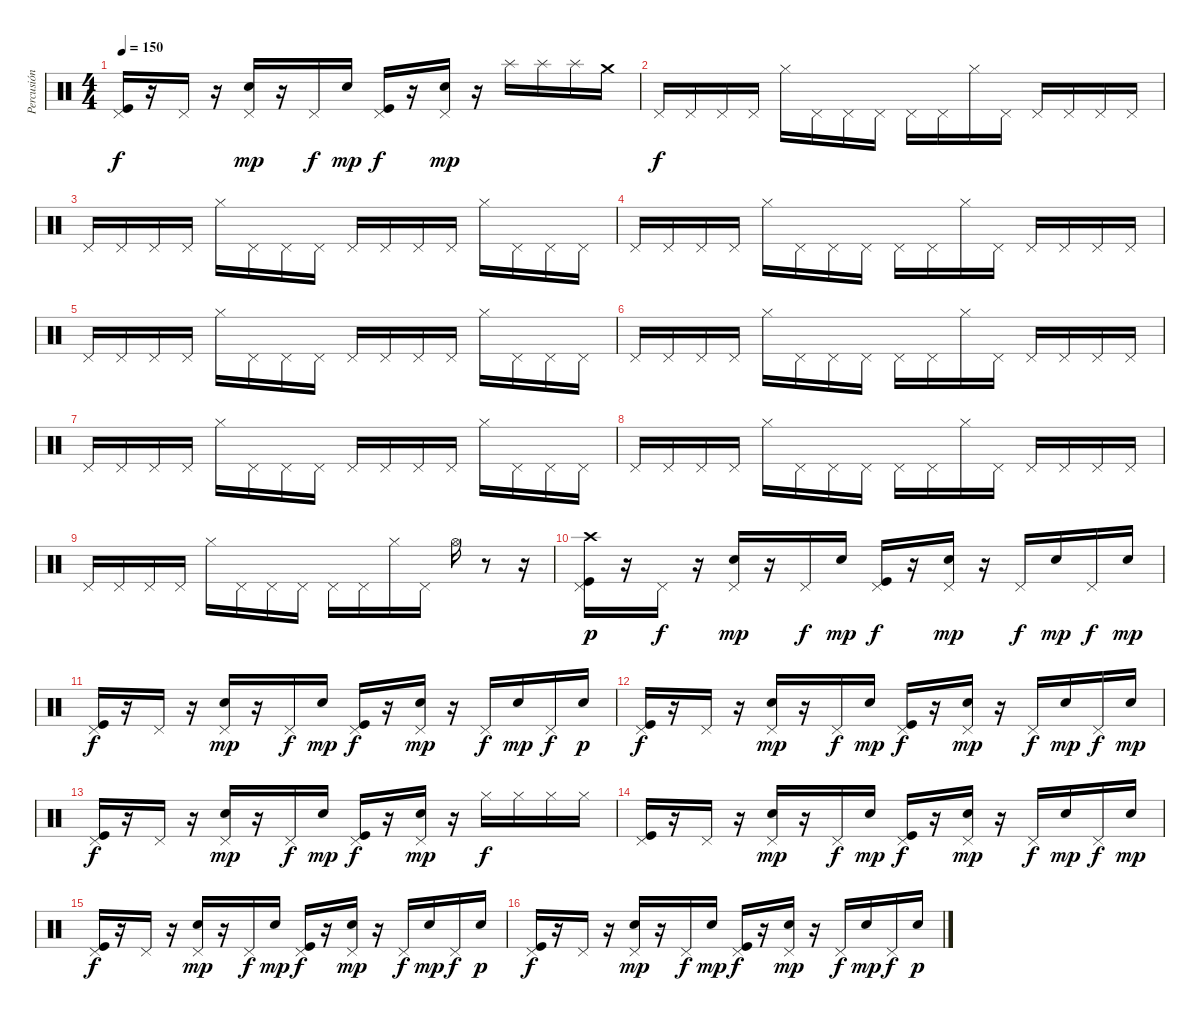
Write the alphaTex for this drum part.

\track ("Percusión" "Percusión") {instrument percussion}
\staff {score}
\articulation defaults
\ts (4 4)
\tempo 150
\clef neutral
\ks c
("Pedal Hi-Hat (hit)" "Kick (hit)").16{dy f} r.16 "Pedal Hi-Hat (hit)".16 r.16 ("Pedal Hi-Hat (hit)" "Electric Snare (hit)").16{dy mp} r.16 "Pedal Hi-Hat (hit)".16{dy f} "Electric Snare (hit)".16{dy mp} ("Pedal Hi-Hat (hit)" "Kick (hit)").16{dy f} r.16 ("Pedal Hi-Hat (hit)" "Electric Snare (hit)").16{dy mp} r.16 "Splash (hit)".16 "Splash (hit)".16 "Splash (hit)".16 "Crash medium (hit)".16 |
"Pedal Hi-Hat (hit)".16{dy f} "Pedal Hi-Hat (hit)".16 "Pedal Hi-Hat (hit)".16 "Pedal Hi-Hat (hit)".16 "Hi-Hat (closed)".16 "Pedal Hi-Hat (hit)".16 "Pedal Hi-Hat (hit)".16 "Pedal Hi-Hat (hit)".16 "Pedal Hi-Hat (hit)".16 "Pedal Hi-Hat (hit)".16 "Hi-Hat (closed)".16 "Pedal Hi-Hat (hit)".16 "Pedal Hi-Hat (hit)".16 "Pedal Hi-Hat (hit)".16 "Pedal Hi-Hat (hit)".16 "Pedal Hi-Hat (hit)".16 |
"Pedal Hi-Hat (hit)".16 "Pedal Hi-Hat (hit)".16 "Pedal Hi-Hat (hit)".16 "Pedal Hi-Hat (hit)".16 "Hi-Hat (closed)".16 "Pedal Hi-Hat (hit)".16 "Pedal Hi-Hat (hit)".16 "Pedal Hi-Hat (hit)".16 "Pedal Hi-Hat (hit)".16 "Pedal Hi-Hat (hit)".16 "Pedal Hi-Hat (hit)".16 "Pedal Hi-Hat (hit)".16 "Hi-Hat (closed)".16 "Pedal Hi-Hat (hit)".16 "Pedal Hi-Hat (hit)".16 "Pedal Hi-Hat (hit)".16 |
"Pedal Hi-Hat (hit)".16 "Pedal Hi-Hat (hit)".16 "Pedal Hi-Hat (hit)".16 "Pedal Hi-Hat (hit)".16 "Hi-Hat (closed)".16 "Pedal Hi-Hat (hit)".16 "Pedal Hi-Hat (hit)".16 "Pedal Hi-Hat (hit)".16 "Pedal Hi-Hat (hit)".16 "Pedal Hi-Hat (hit)".16 "Hi-Hat (closed)".16 "Pedal Hi-Hat (hit)".16 "Pedal Hi-Hat (hit)".16 "Pedal Hi-Hat (hit)".16 "Pedal Hi-Hat (hit)".16 "Pedal Hi-Hat (hit)".16 |
"Pedal Hi-Hat (hit)".16 "Pedal Hi-Hat (hit)".16 "Pedal Hi-Hat (hit)".16 "Pedal Hi-Hat (hit)".16 "Hi-Hat (closed)".16 "Pedal Hi-Hat (hit)".16 "Pedal Hi-Hat (hit)".16 "Pedal Hi-Hat (hit)".16 "Pedal Hi-Hat (hit)".16 "Pedal Hi-Hat (hit)".16 "Pedal Hi-Hat (hit)".16 "Pedal Hi-Hat (hit)".16 "Hi-Hat (closed)".16 "Pedal Hi-Hat (hit)".16 "Pedal Hi-Hat (hit)".16 "Pedal Hi-Hat (hit)".16 |
"Pedal Hi-Hat (hit)".16 "Pedal Hi-Hat (hit)".16 "Pedal Hi-Hat (hit)".16 "Pedal Hi-Hat (hit)".16 "Hi-Hat (closed)".16 "Pedal Hi-Hat (hit)".16 "Pedal Hi-Hat (hit)".16 "Pedal Hi-Hat (hit)".16 "Pedal Hi-Hat (hit)".16 "Pedal Hi-Hat (hit)".16 "Hi-Hat (closed)".16 "Pedal Hi-Hat (hit)".16 "Pedal Hi-Hat (hit)".16 "Pedal Hi-Hat (hit)".16 "Pedal Hi-Hat (hit)".16 "Pedal Hi-Hat (hit)".16 |
"Pedal Hi-Hat (hit)".16 "Pedal Hi-Hat (hit)".16 "Pedal Hi-Hat (hit)".16 "Pedal Hi-Hat (hit)".16 "Hi-Hat (closed)".16 "Pedal Hi-Hat (hit)".16 "Pedal Hi-Hat (hit)".16 "Pedal Hi-Hat (hit)".16 "Pedal Hi-Hat (hit)".16 "Pedal Hi-Hat (hit)".16 "Pedal Hi-Hat (hit)".16 "Pedal Hi-Hat (hit)".16 "Hi-Hat (closed)".16 "Pedal Hi-Hat (hit)".16 "Pedal Hi-Hat (hit)".16 "Pedal Hi-Hat (hit)".16 |
"Pedal Hi-Hat (hit)".16 "Pedal Hi-Hat (hit)".16 "Pedal Hi-Hat (hit)".16 "Pedal Hi-Hat (hit)".16 "Hi-Hat (closed)".16 "Pedal Hi-Hat (hit)".16 "Pedal Hi-Hat (hit)".16 "Pedal Hi-Hat (hit)".16 "Pedal Hi-Hat (hit)".16 "Pedal Hi-Hat (hit)".16 "Hi-Hat (closed)".16 "Pedal Hi-Hat (hit)".16 "Pedal Hi-Hat (hit)".16 "Pedal Hi-Hat (hit)".16 "Pedal Hi-Hat (hit)".16 "Pedal Hi-Hat (hit)".16 |
"Pedal Hi-Hat (hit)".16 "Pedal Hi-Hat (hit)".16 "Pedal Hi-Hat (hit)".16 "Pedal Hi-Hat (hit)".16 "Hi-Hat (closed)".16 "Pedal Hi-Hat (hit)".16 "Pedal Hi-Hat (hit)".16 "Pedal Hi-Hat (hit)".16 "Pedal Hi-Hat (hit)".16 "Pedal Hi-Hat (hit)".16 "Hi-Hat (closed)".16 "Pedal Hi-Hat (hit)".16 "Hi-Hat (open)".16 r.8 r.16 |
("Pedal Hi-Hat (hit)" "Crash high (hit)" "Kick (hit)").16{dy p} r.16 "Pedal Hi-Hat (hit)".16{dy f} r.16 ("Pedal Hi-Hat (hit)" "Electric Snare (hit)").16{dy mp} r.16 "Pedal Hi-Hat (hit)".16{dy f} "Electric Snare (hit)".16{dy mp} ("Pedal Hi-Hat (hit)" "Kick (hit)").16{dy f} r.16 ("Pedal Hi-Hat (hit)" "Electric Snare (hit)").16{dy mp} r.16 "Pedal Hi-Hat (hit)".16{dy f} "Electric Snare (hit)".16{dy mp} "Pedal Hi-Hat (hit)".16{dy f} "Electric Snare (hit)".16{dy mp} |
("Pedal Hi-Hat (hit)" "Kick (hit)").16{dy f} r.16 "Pedal Hi-Hat (hit)".16 r.16 ("Pedal Hi-Hat (hit)" "Electric Snare (hit)").16{dy mp} r.16 "Pedal Hi-Hat (hit)".16{dy f} "Electric Snare (hit)".16{dy mp} ("Pedal Hi-Hat (hit)" "Kick (hit)").16{dy f} r.16 ("Pedal Hi-Hat (hit)" "Electric Snare (hit)").16{dy mp} r.16 "Pedal Hi-Hat (hit)".16{dy f} "Electric Snare (hit)".16{dy mp} "Pedal Hi-Hat (hit)".16{dy f} "Electric Snare (hit)".16{dy p} |
("Pedal Hi-Hat (hit)" "Kick (hit)").16{dy f} r.16 "Pedal Hi-Hat (hit)".16 r.16 ("Pedal Hi-Hat (hit)" "Electric Snare (hit)").16{dy mp} r.16 "Pedal Hi-Hat (hit)".16{dy f} "Electric Snare (hit)".16{dy mp} ("Pedal Hi-Hat (hit)" "Kick (hit)").16{dy f} r.16 ("Pedal Hi-Hat (hit)" "Electric Snare (hit)").16{dy mp} r.16 "Pedal Hi-Hat (hit)".16{dy f} "Electric Snare (hit)".16{dy mp} "Pedal Hi-Hat (hit)".16{dy f} "Electric Snare (hit)".16{dy mp} |
("Pedal Hi-Hat (hit)" "Kick (hit)").16{dy f} r.16 "Pedal Hi-Hat (hit)".16 r.16 ("Pedal Hi-Hat (hit)" "Electric Snare (hit)").16{dy mp} r.16 "Pedal Hi-Hat (hit)".16{dy f} "Electric Snare (hit)".16{dy mp} ("Pedal Hi-Hat (hit)" "Kick (hit)").16{dy f} r.16 ("Pedal Hi-Hat (hit)" "Electric Snare (hit)").16{dy mp} r.16 "Hi-Hat (closed)".16{dy f} "Hi-Hat (closed)".16 "Hi-Hat (closed)".16 "Hi-Hat (closed)".16 |
("Pedal Hi-Hat (hit)" "Kick (hit)").16 r.16 "Pedal Hi-Hat (hit)".16 r.16 ("Pedal Hi-Hat (hit)" "Electric Snare (hit)").16{dy mp} r.16 "Pedal Hi-Hat (hit)".16{dy f} "Electric Snare (hit)".16{dy mp} ("Pedal Hi-Hat (hit)" "Kick (hit)").16{dy f} r.16 ("Pedal Hi-Hat (hit)" "Electric Snare (hit)").16{dy mp} r.16 "Pedal Hi-Hat (hit)".16{dy f} "Electric Snare (hit)".16{dy mp} "Pedal Hi-Hat (hit)".16{dy f} "Electric Snare (hit)".16{dy mp} |
("Pedal Hi-Hat (hit)" "Kick (hit)").16{dy f} r.16 "Pedal Hi-Hat (hit)".16 r.16 ("Pedal Hi-Hat (hit)" "Electric Snare (hit)").16{dy mp} r.16 "Pedal Hi-Hat (hit)".16{dy f} "Electric Snare (hit)".16{dy mp} ("Pedal Hi-Hat (hit)" "Kick (hit)").16{dy f} r.16 ("Pedal Hi-Hat (hit)" "Electric Snare (hit)").16{dy mp} r.16 "Pedal Hi-Hat (hit)".16{dy f} "Electric Snare (hit)".16{dy mp} "Pedal Hi-Hat (hit)".16{dy f} "Electric Snare (hit)".16{dy p} |
("Pedal Hi-Hat (hit)" "Kick (hit)").16{dy f} r.16 "Pedal Hi-Hat (hit)".16 r.16 ("Pedal Hi-Hat (hit)" "Electric Snare (hit)").16{dy mp} r.16 "Pedal Hi-Hat (hit)".16{dy f} "Electric Snare (hit)".16{dy mp} ("Pedal Hi-Hat (hit)" "Kick (hit)").16{dy f} r.16 ("Pedal Hi-Hat (hit)" "Electric Snare (hit)").16{dy mp} r.16 "Pedal Hi-Hat (hit)".16{dy f} "Electric Snare (hit)".16{dy mp} "Pedal Hi-Hat (hit)".16{dy f} "Electric Snare (hit)".16{dy p}
